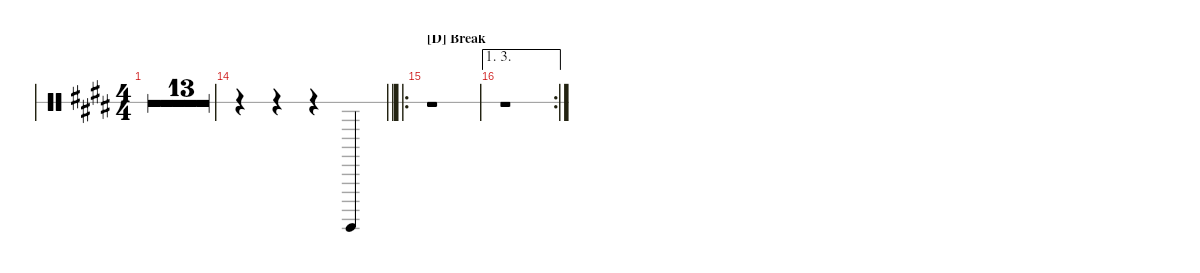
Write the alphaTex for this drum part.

\defaultSystemsLayout 4
\hideDynamics
\bracketExtendMode nobrackets
\singleTrackTrackNamePolicy hidden
\multiTrackTrackNamePolicy hidden
\firstSystemTrackNameMode fullname
\firstSystemTrackNameOrientation horizontal
\otherSystemsTrackNameOrientation horizontal
\track ("Vibraslap" "Vslap") {multiBarRest instrument percussion}
\staff {score 1}
\articulation defaults
\ts (4 4)
\tempo 120
\clef neutral
\ks e
r.1{dy mf} |
r.1 |
r.1 |
r.1 |
r.1 |
r.1 |
r.1 |
r.1 |
r.1 |
r.1 |
r.1 |
r.1 |
r.1 |
\barLineRight lightlight
r.4 r.4 r.4 "Vibraslap (hit)"{acc forcenatural}.4 |
\ro
\section ("D" "Break")
r.1 |
\ae (1 3)
\rc 2
r.1
